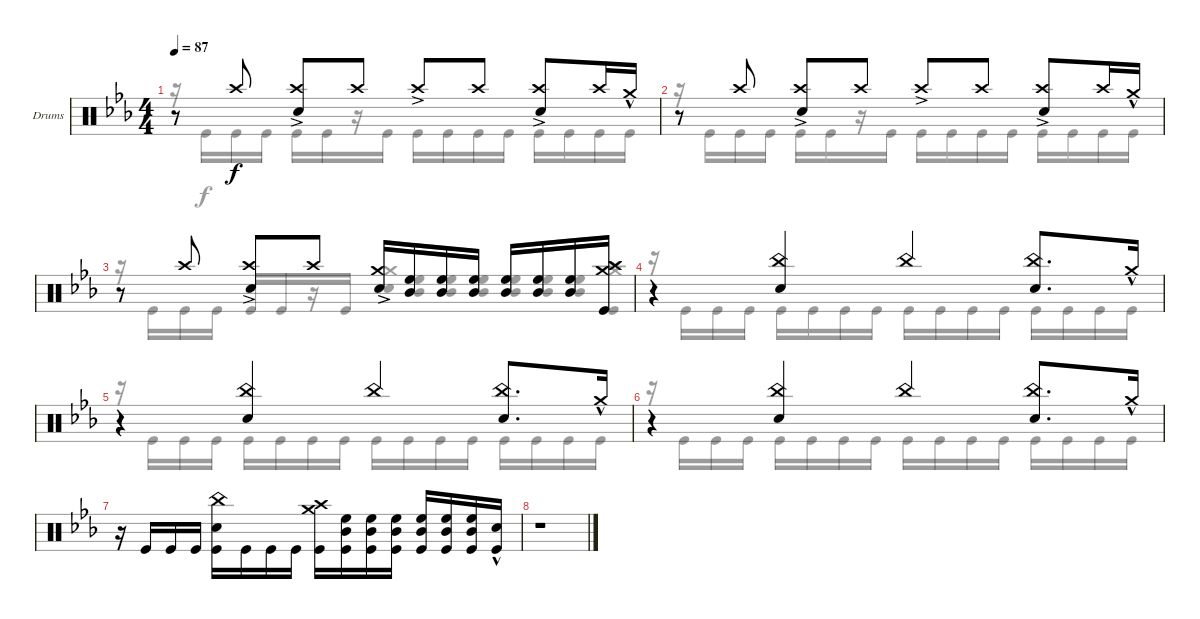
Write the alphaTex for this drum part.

\bracketExtendMode groupsimilarinstruments
\firstSystemTrackNameOrientation horizontal
\otherSystemsTrackNameOrientation horizontal
\track ("Mike Wengren" "Drums") {instrument percussion}
\staff {score}
\articulation defaults
\voice
\ts (4 4)
\tempo 87
\clef neutral
\ks cminor
r.8{dy f} "Crash high (hit)".8 ("Crash high (hit)"{ac} "Snare (hit) 2").8 "Crash high (hit)".8 "Crash high (hit)"{ac}.8 "Crash high (hit)".8 ("Crash high (hit)"{ac} "Snare (hit) 2").8 "Crash high (hit)".16 "Crash medium (hit)"{hac}.16 |
r.8 "Crash high (hit)".8 ("Crash high (hit)"{ac} "Snare (hit) 2").8 "Crash high (hit)".8 "Crash high (hit)"{ac}.8 "Crash high (hit)".8 ("Crash high (hit)"{ac} "Snare (hit) 2").8 "Crash high (hit)".16 "Crash medium (hit)"{hac}.16 |
r.8 "Crash high (hit)".8 ("Crash high (hit)"{ac} "Snare (hit) 2").8 "Crash high (hit)".8 ("Crash medium (hit)"{ac} "Snare (hit) 2").16 ("High Floor Tom (hit)" "Mid Tom (hit)").16 ("High Floor Tom (hit)" "Mid Tom (hit)").16 ("High Floor Tom (hit)" "Mid Tom (hit)").16 ("High Floor Tom (hit)" "Mid Tom (hit)").16 ("High Floor Tom (hit)" "Mid Tom (hit)").16 ("High Floor Tom (hit)" "Mid Tom (hit)").16 ("Crash medium (hit)" "Crash high (hit)" "Kick (hit)").16 |
r.4 ("China (hit)" "Snare (hit) 2").4 "China (hit)".4 ("China (hit)" "Snare (hit) 2").8{d} "Crash medium (hit)"{hac}.16 |
r.4 ("China (hit)" "Snare (hit) 2").4 "China (hit)".4 ("China (hit)" "Snare (hit) 2").8{d} "Crash medium (hit)"{hac}.16 |
r.4 ("China (hit)" "Snare (hit) 2").4 "China (hit)".4 ("China (hit)" "Snare (hit) 2").8{d} "Crash medium (hit)"{hac}.16 |
r.16 "Kick (hit)".16 "Kick (hit)".16 "Kick (hit)".16 ("China (hit)" "Snare (hit) 2" "Kick (hit)").16 "Kick (hit)".16 "Kick (hit)".16 "Kick (hit)".16 ("Crash medium (hit)" "Crash high (hit)" "Kick (hit)").16 ("High Floor Tom (hit)" "Mid Tom (hit)" "Kick (hit)").16 ("High Floor Tom (hit)" "Mid Tom (hit)" "Kick (hit)").16 ("High Floor Tom (hit)" "Mid Tom (hit)" "Kick (hit)").16 ("High Floor Tom (hit)" "Mid Tom (hit)" "Kick (hit)").16 ("High Floor Tom (hit)" "Mid Tom (hit)" "Kick (hit)").16 ("High Floor Tom (hit)" "Mid Tom (hit)" "Kick (hit)").16 ("Snare (hit) 2"{hac} "Kick (hit)").16 |
r.1
\voice
\clef neutral
\ottava regular
\simile none
\ks cminor
r.16{dy f} "Kick (hit)".16 "Kick (hit)".16 "Kick (hit)".16 "Kick (hit)".16 "Kick (hit)".16 r.16 "Kick (hit)".16 "Kick (hit)".16 "Kick (hit)".16 "Kick (hit)".16 "Kick (hit)".16 "Kick (hit)".16 "Kick (hit)".16 "Kick (hit)".16 "Kick (hit)".16 |
r.16 "Kick (hit)".16 "Kick (hit)".16 "Kick (hit)".16 "Kick (hit)".16 "Kick (hit)".16 r.16 "Kick (hit)".16 "Kick (hit)".16 "Kick (hit)".16 "Kick (hit)".16 "Kick (hit)".16 "Kick (hit)".16 "Kick (hit)".16 "Kick (hit)".16 "Kick (hit)".16 |
r.16 "Kick (hit)".16 "Kick (hit)".16 "Kick (hit)".16 "Kick (hit)".16 "Kick (hit)".16 r.16 "Kick (hit)".16 ("Crash medium (hit)"{ac} "Snare (hit) 2").16{beam invert} ("High Floor Tom (hit)" "Mid Tom (hit)").16 ("High Floor Tom (hit)" "Mid Tom (hit)").16 ("High Floor Tom (hit)" "Mid Tom (hit)").16 ("High Floor Tom (hit)" "Mid Tom (hit)").16{beam invert} ("High Floor Tom (hit)" "Mid Tom (hit)").16 ("High Floor Tom (hit)" "Mid Tom (hit)").16 ("Crash medium (hit)" "Crash high (hit)" "Kick (hit)").16 |
r.16 "Kick (hit)".16 "Kick (hit)".16 "Kick (hit)".16 "Kick (hit)".16 "Kick (hit)".16 "Kick (hit)".16 "Kick (hit)".16 "Kick (hit)".16 "Kick (hit)".16 "Kick (hit)".16 "Kick (hit)".16 "Kick (hit)".16 "Kick (hit)".16 "Kick (hit)".16 "Kick (hit)".16 |
r.16 "Kick (hit)".16 "Kick (hit)".16 "Kick (hit)".16 "Kick (hit)".16 "Kick (hit)".16 "Kick (hit)".16 "Kick (hit)".16 "Kick (hit)".16 "Kick (hit)".16 "Kick (hit)".16 "Kick (hit)".16 "Kick (hit)".16 "Kick (hit)".16 "Kick (hit)".16 "Kick (hit)".16 |
r.16 "Kick (hit)".16 "Kick (hit)".16 "Kick (hit)".16 "Kick (hit)".16 "Kick (hit)".16 "Kick (hit)".16 "Kick (hit)".16 "Kick (hit)".16 "Kick (hit)".16 "Kick (hit)".16 "Kick (hit)".16 "Kick (hit)".16 "Kick (hit)".16 "Kick (hit)".16 "Kick (hit)".16 |
|
